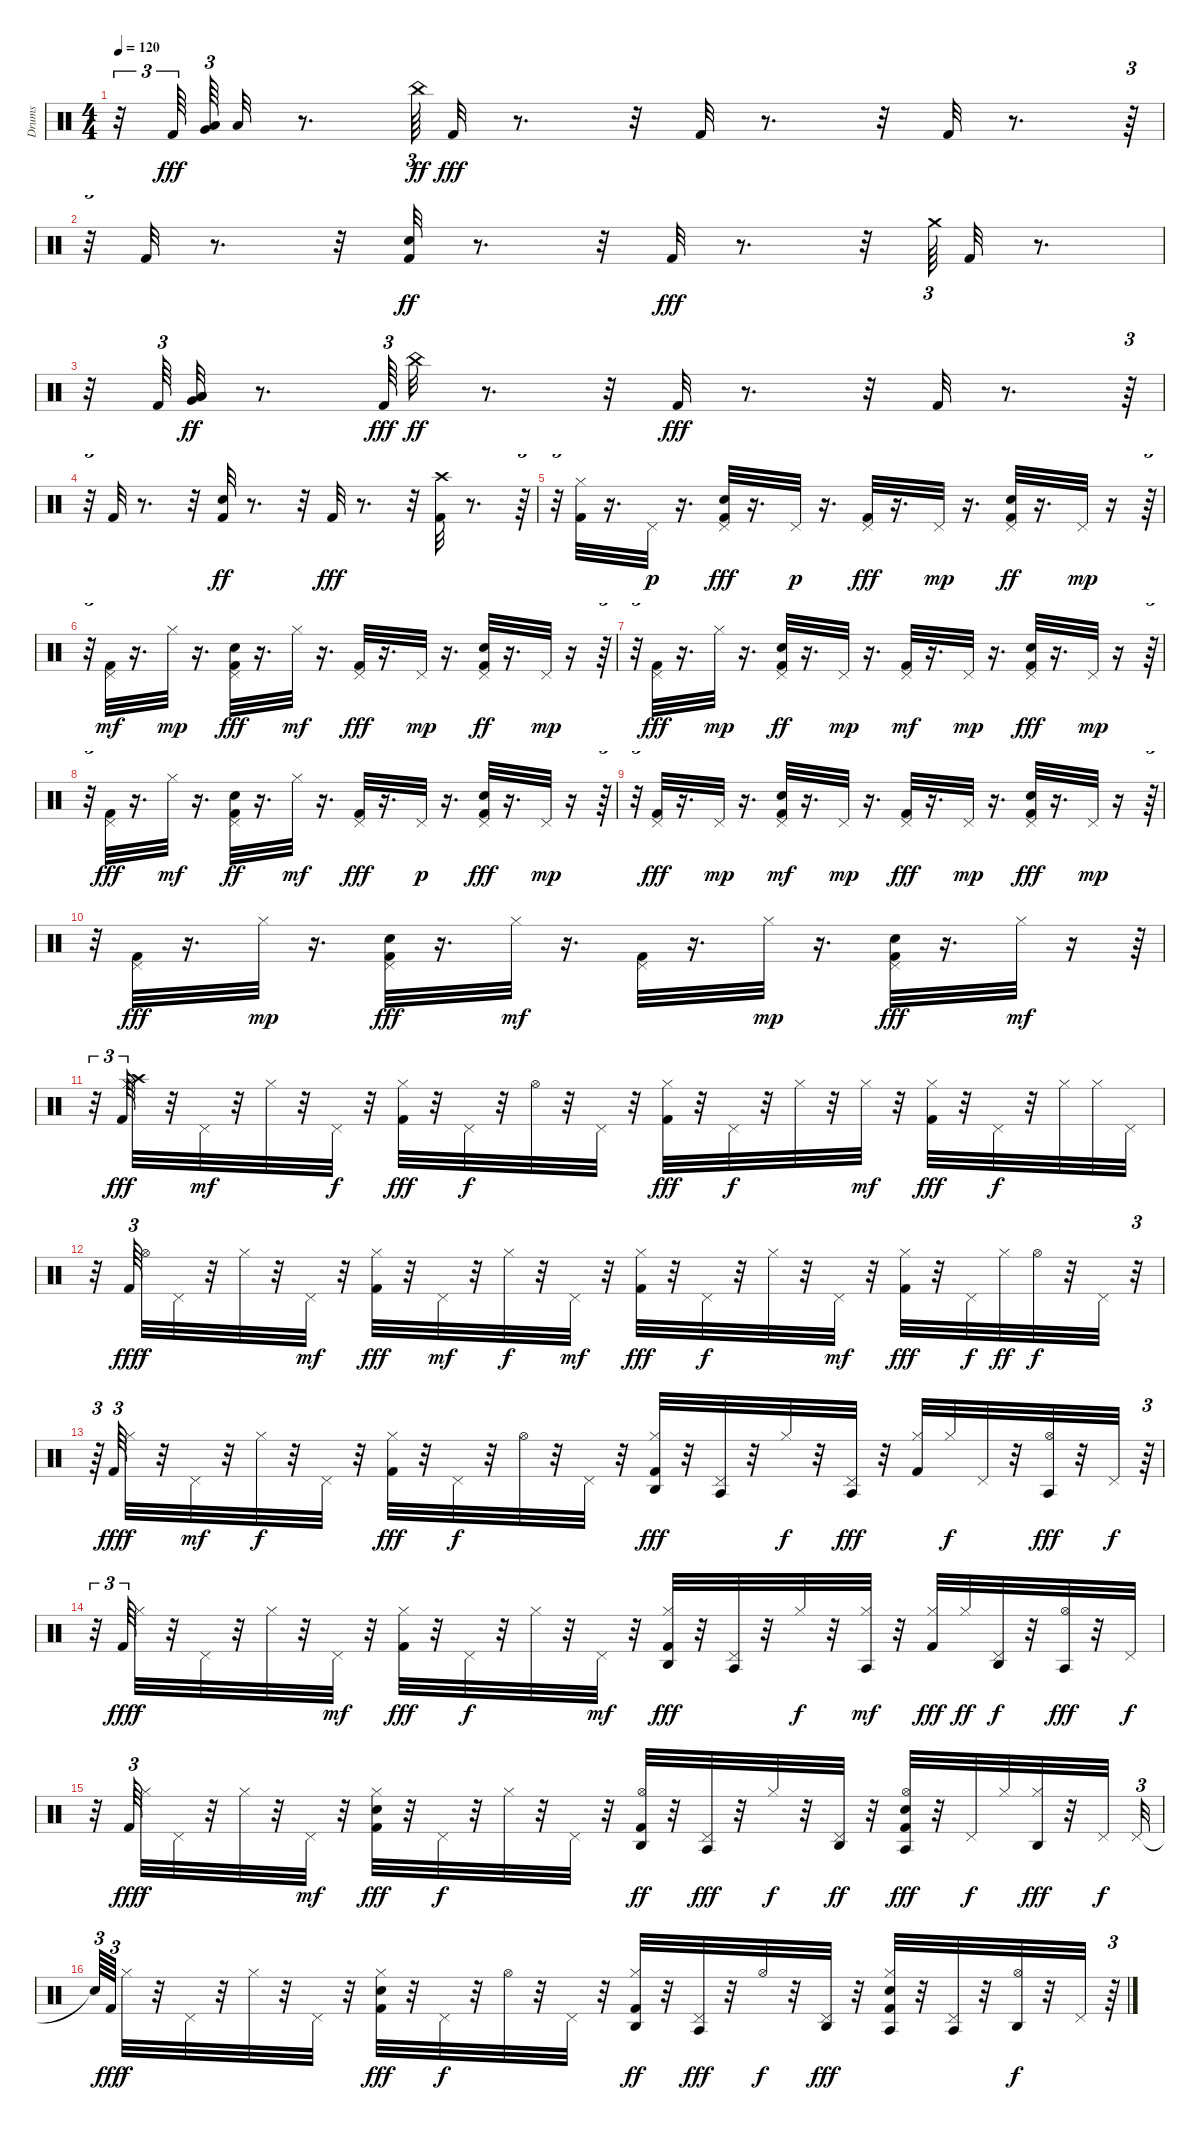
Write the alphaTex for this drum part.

\track ("Drums" "Drums") {instrument percussion}
\staff {score}
\articulation defaults
\ts (4 4)
\tempo 120
\clef neutral
\ks c
r.32{tu (3 2) dy fff} "Kick (hit) 2".64{tu (3 2) beam splitsecondary} ("Very Low Tom (hit)" "Low Tom (hit)").64{tu (3 2)} "Low Floor Tom (hit)".32 r.8{d} "China (hit)".64{tu (3 2) dy ff} "Kick (hit) 2".32{dy fff} r.8{d} r.32 "Kick (hit) 2".32 r.8{d} r.32 "Kick (hit) 2".32 r.8{d} r.64{tu (3 2)} |
r.32{tu (3 2)} "Kick (hit) 2".32 r.8{d} r.32 ("Kick (hit) 2" "Snare (hit) 2").32{dy ff} r.8{d} r.32 "Kick (hit) 2".32{dy fff} r.8{d} r.32 "Crash medium (hit)".64{tu (3 2)} "Kick (hit) 2".32 r.8{d} |
r.32 "Kick (hit) 2".64{tu (3 2)} ("Low Tom (hit)" "Very Low Tom (hit)" "Low Floor Tom (hit)").32{dy ff} r.8{d} "Kick (hit) 2".64{tu (3 2) dy fff} "China (hit)".32{dy ff} r.8{d} r.32 "Kick (hit) 2".32{dy fff} r.8{d} r.32 "Kick (hit) 2".32 r.8{d} r.64{tu (3 2)} |
r.32{tu (3 2)} "Kick (hit) 2".32 r.8{d} r.32 ("Kick (hit) 2" "Snare (hit) 2").32{dy ff} r.8{d} r.32 "Kick (hit) 2".32{dy fff} r.8{d} r.32 ("Kick (hit) 2" "Crash high (hit)").32 r.8{d} r.64{tu (3 2)} |
r.32{tu (3 2)} ("Hi-Hat (closed)" "Kick (hit) 2").32 r.16{d} "Pedal Hi-Hat (hit)".32{dy p} r.16{d} ("Pedal Hi-Hat (hit)" "Snare (hit) 2" "Kick (hit) 2").32{dy fff} r.16{d} "Pedal Hi-Hat (hit)".32{dy p} r.16{d} ("Pedal Hi-Hat (hit)" "Kick (hit) 2").32{dy fff} r.16{d} "Pedal Hi-Hat (hit)".32{dy mp} r.16{d} ("Kick (hit) 2" "Snare (hit) 2" "Pedal Hi-Hat (hit)").32{dy ff} r.16{d} "Pedal Hi-Hat (hit)".32{dy mp} r.16 r.64{tu (3 2)} |
r.32{tu (3 2)} ("Kick (hit) 2" "Pedal Hi-Hat (hit)").32{dy mf} r.16{d} "Hi-Hat (closed)".32{dy mp} r.16{d} ("Snare (hit) 2" "Pedal Hi-Hat (hit)" "Kick (hit) 2").32{dy fff} r.16{d} "Hi-Hat (closed)".32{dy mf} r.16{d} ("Pedal Hi-Hat (hit)" "Kick (hit) 2").32{dy fff} r.16{d} "Pedal Hi-Hat (hit)".32{dy mp} r.16{d} ("Pedal Hi-Hat (hit)" "Kick (hit) 2" "Snare (hit) 2").32{dy ff} r.16{d} "Pedal Hi-Hat (hit)".32{dy mp} r.16 r.64{tu (3 2)} |
r.32{tu (3 2)} ("Kick (hit) 2" "Pedal Hi-Hat (hit)").32{dy fff} r.16{d} "Hi-Hat (closed)".32{dy mp} r.16{d} ("Pedal Hi-Hat (hit)" "Kick (hit) 2" "Snare (hit) 2").32{dy ff} r.16{d} "Pedal Hi-Hat (hit)".32{dy mp} r.16{d} ("Kick (hit) 2" "Pedal Hi-Hat (hit)").32{dy mf} r.16{d} "Pedal Hi-Hat (hit)".32{dy mp} r.16{d} ("Snare (hit) 2" "Pedal Hi-Hat (hit)" "Kick (hit) 2").32{dy fff} r.16{d} "Pedal Hi-Hat (hit)".32{dy mp} r.16 r.64{tu (3 2)} |
r.32{tu (3 2)} ("Kick (hit) 2" "Pedal Hi-Hat (hit)").32{dy fff} r.16{d} "Hi-Hat (closed)".32{dy mf} r.16{d} ("Pedal Hi-Hat (hit)" "Kick (hit) 2" "Snare (hit) 2").32{dy ff} r.16{d} "Hi-Hat (closed)".32{dy mf} r.16{d} ("Pedal Hi-Hat (hit)" "Kick (hit) 2").32{dy fff} r.16{d} "Pedal Hi-Hat (hit)".32{dy p} r.16{d} ("Pedal Hi-Hat (hit)" "Snare (hit) 2" "Kick (hit) 2").32{dy fff} r.16{d} "Pedal Hi-Hat (hit)".32{dy mp} r.16 r.64{tu (3 2)} |
r.32{tu (3 2)} ("Pedal Hi-Hat (hit)" "Kick (hit) 2").32{dy fff} r.16{d} "Pedal Hi-Hat (hit)".32{dy mp} r.16{d} ("Snare (hit) 2" "Kick (hit) 2" "Pedal Hi-Hat (hit)").32{dy mf} r.16{d} "Pedal Hi-Hat (hit)".32{dy mp} r.16{d} ("Pedal Hi-Hat (hit)" "Kick (hit) 2").32{dy fff} r.16{d} "Pedal Hi-Hat (hit)".32{dy mp} r.16{d} ("Pedal Hi-Hat (hit)" "Snare (hit) 2" "Kick (hit) 2").32{dy fff} r.16{d} "Pedal Hi-Hat (hit)".32{dy mp} r.16 r.64{tu (3 2)} |
r.32{tu (3 2)} ("Kick (hit) 2" "Pedal Hi-Hat (hit)").32{dy fff} r.16{d} "Hi-Hat (closed)".32{dy mp} r.16{d} ("Pedal Hi-Hat (hit)" "Snare (hit) 2" "Kick (hit) 2").32{dy fff} r.16{d} "Hi-Hat (closed)".32{dy mf} r.16{d} ("Kick (hit) 2" "Pedal Hi-Hat (hit)").32 r.16{d} "Hi-Hat (closed)".32{dy mp} r.16{d} ("Pedal Hi-Hat (hit)" "Snare (hit) 2" "Kick (hit) 2").32{dy fff} r.16{d} "Hi-Hat (closed)".32{dy mf} r.16 r.64{tu (3 2)} |
r.32{tu (3 2)} "Kick (hit) 2".64{tu (3 2) dy fff} ("Hi-Hat (closed)" "Crash high (hit)").32 r.32 "Pedal Hi-Hat (hit)".32{dy mf} r.32 "Hi-Hat (closed)".32 r.32 "Pedal Hi-Hat (hit)".32{dy f} r.32 ("Hi-Hat (closed)" "Kick (hit) 2").32{dy fff} r.32 "Pedal Hi-Hat (hit)".32{dy f} r.32 "Hi-Hat (open)".32 r.32 "Pedal Hi-Hat (hit)".32 r.32 ("Hi-Hat (closed)" "Kick (hit) 2").32{dy fff} r.32 "Pedal Hi-Hat (hit)".32{dy f} r.32 "Hi-Hat (closed)".32 r.32 "Hi-Hat (closed)".32{dy mf} r.32 ("Kick (hit) 2" "Hi-Hat (closed)").32{dy fff} r.32 "Pedal Hi-Hat (hit)".32{dy f} r.32 "Hi-Hat (closed)".32 "Hi-Hat (closed)".32 "Pedal Hi-Hat (hit)".32 |
r.32 "Kick (hit) 2".64{tu (3 2) dy fff beam splitsecondary} "Hi-Hat (open)".32{dy f} "Pedal Hi-Hat (hit)".32 r.32 "Hi-Hat (closed)".32 r.32 "Pedal Hi-Hat (hit)".32{dy mf} r.32 ("Hi-Hat (closed)" "Kick (hit) 2").32{dy fff} r.32 "Pedal Hi-Hat (hit)".32{dy mf} r.32 "Hi-Hat (closed)".32{dy f} r.32 "Pedal Hi-Hat (hit)".32{dy mf} r.32 ("Kick (hit) 2" "Hi-Hat (closed)").32{dy fff} r.32 "Pedal Hi-Hat (hit)".32{dy f} r.32 "Hi-Hat (closed)".32 r.32 "Pedal Hi-Hat (hit)".32{dy mf} r.32 ("Hi-Hat (closed)" "Kick (hit) 2").32{dy fff} r.32 "Pedal Hi-Hat (hit)".32{dy f} "Hi-Hat (closed)".32{dy ff} "Hi-Hat (open)".32{dy f} r.32 "Pedal Hi-Hat (hit)".32 r.32{tu (3 2)} |
r.64{tu (3 2)} "Kick (hit) 2".64{tu (3 2) dy fff} "Hi-Hat (closed)".32{dy f} r.32 "Pedal Hi-Hat (hit)".32{dy mf} r.32 "Hi-Hat (closed)".32{dy f} r.32 "Pedal Hi-Hat (hit)".32 r.32 ("Kick (hit) 2" "Hi-Hat (closed)").32{dy fff} r.32 "Pedal Hi-Hat (hit)".32{dy f} r.32 "Hi-Hat (open)".32 r.32 "Pedal Hi-Hat (hit)".32 r.32 ("Agogo high (hit)" "Hi-Hat (closed)" "Kick (hit) 2").32{dy fff} r.32 ("Pedal Hi-Hat (hit)" "Agogo tow (hit)").32 r.32 "Hi-Hat (closed)".32{dy f} r.32 ("Pedal Hi-Hat (hit)" "Agogo tow (hit)").32{dy fff} r.32 ("Hi-Hat (closed)" "Kick (hit) 2").32 "Hi-Hat (closed)".32{dy f} "Pedal Hi-Hat (hit)".32 r.32 ("Hi-Hat (open)" "Agogo tow (hit)").32{dy fff} r.32 "Pedal Hi-Hat (hit)".32{dy f} r.64{tu (3 2)} |
r.32{tu (3 2)} "Kick (hit) 2".64{tu (3 2) dy fff} "Hi-Hat (closed)".32{dy f} r.32 "Pedal Hi-Hat (hit)".32 r.32 "Hi-Hat (closed)".32 r.32 "Pedal Hi-Hat (hit)".32{dy mf} r.32 ("Hi-Hat (closed)" "Kick (hit) 2").32{dy fff} r.32 "Pedal Hi-Hat (hit)".32{dy f} r.32 "Hi-Hat (closed)".32 r.32 "Pedal Hi-Hat (hit)".32{dy mf} r.32 ("Agogo high (hit)" "Kick (hit) 2" "Hi-Hat (closed)").32{dy fff} r.32 ("Agogo tow (hit)" "Pedal Hi-Hat (hit)").32 r.32 "Hi-Hat (closed)".32{dy f} r.32 ("Agogo tow (hit)" "Hi-Hat (closed)").32{dy mf} r.32 ("Hi-Hat (closed)" "Kick (hit) 2").32{dy fff} "Hi-Hat (closed)".32{dy ff} ("Pedal Hi-Hat (hit)" "Agogo high (hit)").32{dy f} r.32 ("Agogo tow (hit)" "Hi-Hat (open)").32{dy fff} r.32 "Pedal Hi-Hat (hit)".32{dy f} |
r.32 "Kick (hit) 2".64{tu (3 2) dy fff beam splitsecondary} "Hi-Hat (closed)".32{dy f} "Pedal Hi-Hat (hit)".32 r.32 "Hi-Hat (closed)".32 r.32 "Pedal Hi-Hat (hit)".32{dy mf} r.32 ("Snare (hit) 2" "Hi-Hat (closed)" "Kick (hit) 2").32{dy fff} r.32 "Pedal Hi-Hat (hit)".32{dy f} r.32 "Hi-Hat (closed)".32 r.32 "Pedal Hi-Hat (hit)".32 r.32 ("Kick (hit) 2" "Agogo high (hit)" "Hi-Hat (open)").32{dy ff} r.32 ("Agogo tow (hit)" "Pedal Hi-Hat (hit)").32{dy fff} r.32 "Hi-Hat (closed)".32{dy f} r.32 ("Agogo high (hit)" "Pedal Hi-Hat (hit)").32{dy ff} r.32 ("Hi-Hat (open)" "Snare (hit) 2" "Agogo tow (hit)" "Kick (hit) 2").32{dy fff} r.32 "Pedal Hi-Hat (hit)".32{dy f} "Hi-Hat (closed)".32 ("Agogo high (hit)" "Hi-Hat (closed)").32{dy fff} r.32 "Pedal Hi-Hat (hit)".32{dy f} "Pedal Hi-Hat (hit)".32{tu (3 2)} |
"Snare (hit)"{t}.64{tu (3 2)} "Kick (hit) 2".64{tu (3 2) dy fff beam splitsecondary} "Hi-Hat (closed)".32{dy f} r.32 "Pedal Hi-Hat (hit)".32 r.32 "Hi-Hat (closed)".32 r.32 "Pedal Hi-Hat (hit)".32 r.32 ("Hi-Hat (closed)" "Snare (hit) 2" "Kick (hit) 2").32{dy fff} r.32 "Pedal Hi-Hat (hit)".32{dy f} r.32 "Hi-Hat (open)".32 r.32 "Pedal Hi-Hat (hit)".32 r.32 ("Hi-Hat (closed)" "Kick (hit) 2" "Agogo high (hit)").32{dy ff} r.32 ("Agogo tow (hit)" "Pedal Hi-Hat (hit)").32{dy fff} r.32 "Hi-Hat (open)".32{dy f} r.32 ("Agogo high (hit)" "Pedal Hi-Hat (hit)").32{dy fff} r.32 ("Agogo tow (hit)" "Snare (hit) 2" "Hi-Hat (closed)" "Kick (hit) 2").32 r.32 ("Pedal Hi-Hat (hit)" "Agogo tow (hit)").32 r.32 ("Hi-Hat (open)" "Agogo high (hit)").32{dy f} r.32 "Pedal Hi-Hat (hit)".32 r.64{tu (3 2)}
